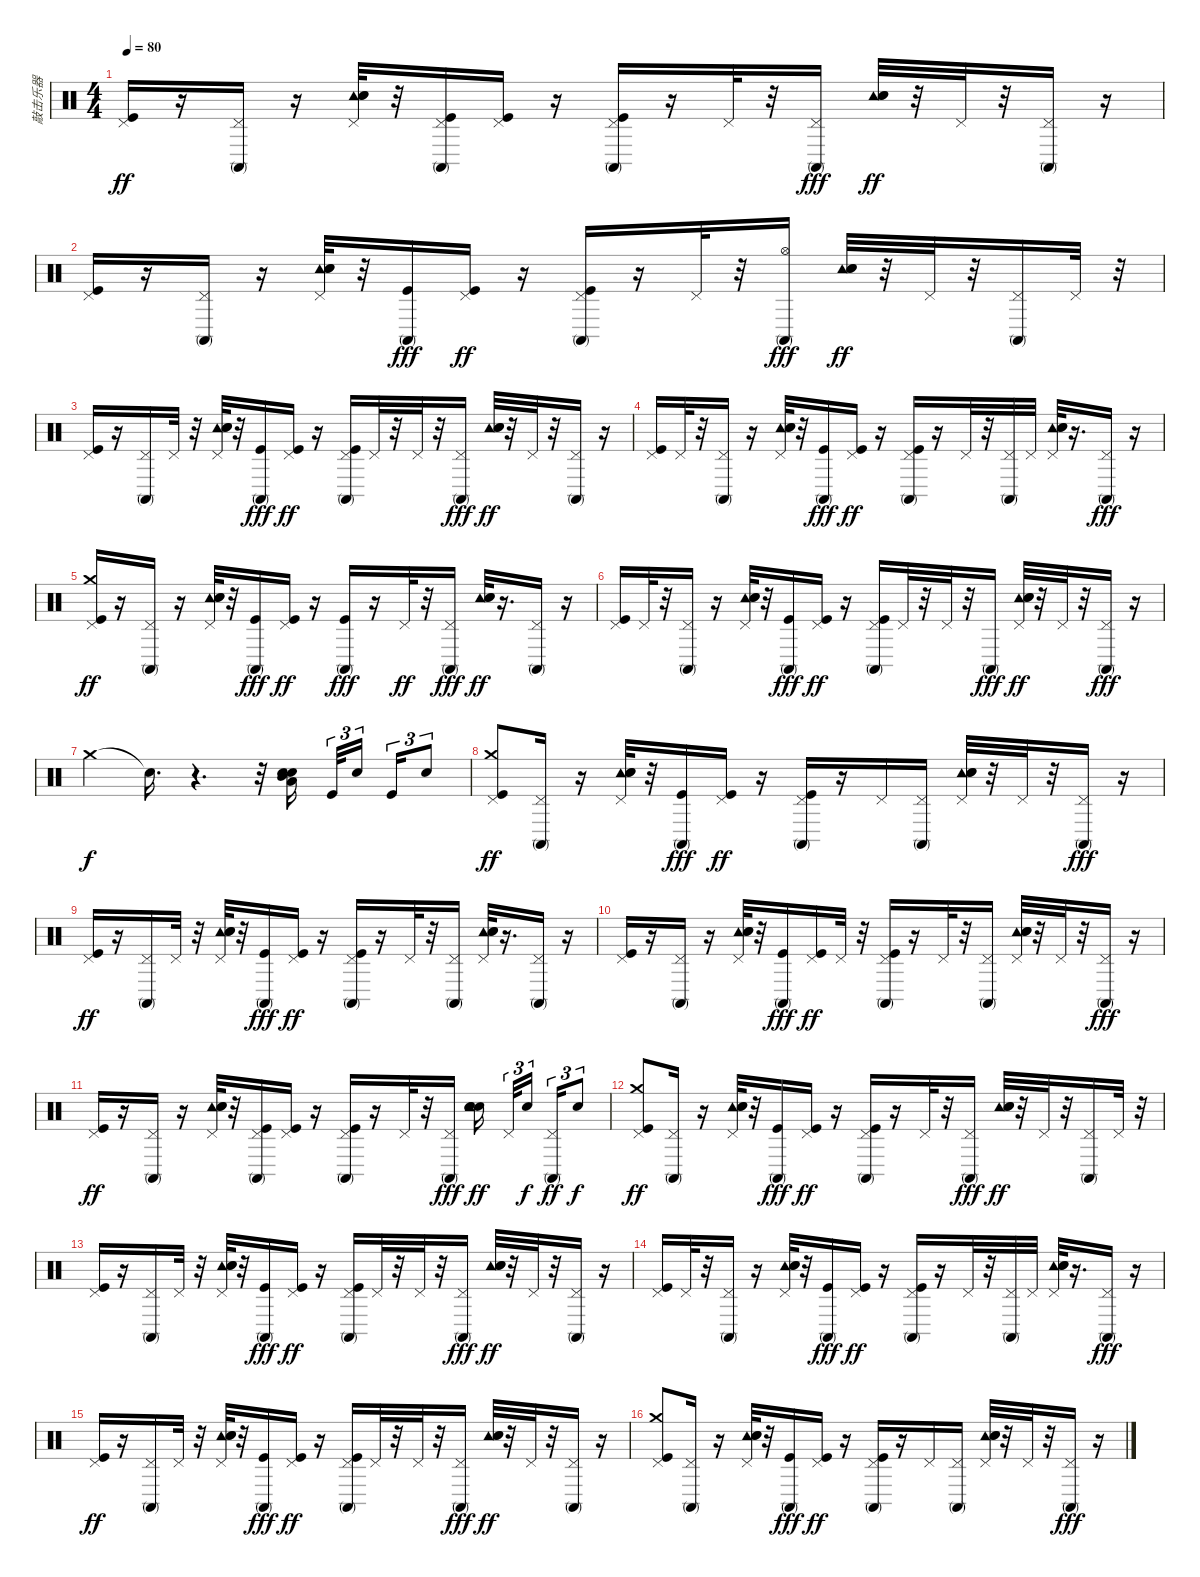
\track ("敲击乐器" "敲击乐器") {instrument percussion}
\staff {score}
\articulation defaults
\ts (4 4)
\tempo 80
\clef neutral
\ks c
("Kick (hit)" "Pedal Hi-Hat (hit)").16{dy ff} r.16 ("Conga high (mute)" "Pedal Hi-Hat (hit)").16 r.16 ("Pedal Hi-Hat (hit)" "Tambourine (hit)" "Hand Clap (hit)" "Electric Snare (hit)").32 r.32 ("Conga high (mute)" "Kick (hit)" "Pedal Hi-Hat (hit)").16 ("Kick (hit)" "Pedal Hi-Hat (hit)").16 r.16 ("Conga high (mute)" "Kick (hit)" "Pedal Hi-Hat (hit)").16 r.16 "Pedal Hi-Hat (hit)".32 r.32 ("Conga high (mute)" "Pedal Hi-Hat (hit)").16{dy fff} ("Tambourine (hit)" "Hand Clap (hit)" "Electric Snare (hit)").32{dy ff} r.32 "Pedal Hi-Hat (hit)".32 r.32 ("Conga high (mute)" "Pedal Hi-Hat (hit)").16 r.16 |
("Kick (hit)" "Pedal Hi-Hat (hit)").16 r.16 ("Conga high (mute)" "Pedal Hi-Hat (hit)").16 r.16 ("Pedal Hi-Hat (hit)" "Tambourine (hit)" "Hand Clap (hit)" "Electric Snare (hit)").32 r.32 ("Conga high (mute)" "Kick (hit)").16{dy fff} ("Kick (hit)" "Pedal Hi-Hat (hit)").16{dy ff} r.16 ("Conga high (mute)" "Kick (hit)" "Pedal Hi-Hat (hit)").16 r.16 "Pedal Hi-Hat (hit)".32 r.32 ("Conga high (mute)" "Hi-Hat (open)").16{dy fff} ("Tambourine (hit)" "Hand Clap (hit)" "Electric Snare (hit)").32{dy ff} r.32 "Pedal Hi-Hat (hit)".32 r.32 ("Conga high (mute)" "Pedal Hi-Hat (hit)").16 "Pedal Hi-Hat (hit)".32 r.32 |
("Kick (hit)" "Pedal Hi-Hat (hit)").16 r.16 ("Conga high (mute)" "Pedal Hi-Hat (hit)").16 "Pedal Hi-Hat (hit)".32 r.32 ("Pedal Hi-Hat (hit)" "Tambourine (hit)" "Hand Clap (hit)" "Electric Snare (hit)").32 r.32 ("Conga high (mute)" "Kick (hit)").16{dy fff} ("Kick (hit)" "Pedal Hi-Hat (hit)").16{dy ff} r.16 ("Conga high (mute)" "Kick (hit)" "Pedal Hi-Hat (hit)").16 "Pedal Hi-Hat (hit)".32 r.32 "Pedal Hi-Hat (hit)".32 r.32 ("Conga high (mute)" "Pedal Hi-Hat (hit)").16{dy fff} ("Tambourine (hit)" "Hand Clap (hit)" "Electric Snare (hit)").32{dy ff} r.32 "Pedal Hi-Hat (hit)".32 r.32 ("Conga high (mute)" "Pedal Hi-Hat (hit)").16 r.16 |
("Kick (hit)" "Pedal Hi-Hat (hit)").16 "Pedal Hi-Hat (hit)".32 r.32 ("Conga high (mute)" "Pedal Hi-Hat (hit)").16 r.16 ("Pedal Hi-Hat (hit)" "Tambourine (hit)" "Hand Clap (hit)" "Electric Snare (hit)").32 r.32 ("Conga high (mute)" "Kick (hit)").16{dy fff} ("Kick (hit)" "Pedal Hi-Hat (hit)").16{dy ff} r.16 ("Conga high (mute)" "Kick (hit)" "Pedal Hi-Hat (hit)").16 r.16 "Pedal Hi-Hat (hit)".32 r.32 ("Conga high (mute)" "Pedal Hi-Hat (hit)").32 "Pedal Hi-Hat (hit)".32 ("Pedal Hi-Hat (hit)" "Tambourine (hit)" "Hand Clap (hit)" "Electric Snare (hit)").32 r.16{d} ("Conga high (mute)" "Pedal Hi-Hat (hit)").16{dy fff} r.16 |
("Kick (hit)" "Crash medium (hit)" "Pedal Hi-Hat (hit)").16{dy ff} r.16 ("Conga high (mute)" "Pedal Hi-Hat (hit)").16 r.16 ("Pedal Hi-Hat (hit)" "Tambourine (hit)" "Hand Clap (hit)" "Electric Snare (hit)").32 r.32 ("Conga high (mute)" "Kick (hit)").16{dy fff} ("Kick (hit)" "Pedal Hi-Hat (hit)").16{dy ff} r.16 ("Conga high (mute)" "Kick (hit)").16{dy fff} r.16 "Pedal Hi-Hat (hit)".32{dy ff} r.32 ("Conga high (mute)" "Pedal Hi-Hat (hit)").16{dy fff} ("Tambourine (hit)" "Hand Clap (hit)" "Electric Snare (hit)").32{dy ff} r.16{d} ("Conga high (mute)" "Pedal Hi-Hat (hit)").16 r.16 |
("Kick (hit)" "Pedal Hi-Hat (hit)").16 "Pedal Hi-Hat (hit)".32 r.32 ("Conga high (mute)" "Pedal Hi-Hat (hit)").16 r.16 ("Pedal Hi-Hat (hit)" "Tambourine (hit)" "Hand Clap (hit)" "Electric Snare (hit)").32 r.32 ("Conga high (mute)" "Kick (hit)").16{dy fff} ("Kick (hit)" "Pedal Hi-Hat (hit)").16{dy ff} r.16 ("Conga high (mute)" "Kick (hit)" "Pedal Hi-Hat (hit)").16 "Pedal Hi-Hat (hit)".32 r.32 "Pedal Hi-Hat (hit)".32 r.32 "Conga high (mute)".16{dy fff} ("Pedal Hi-Hat (hit)" "Tambourine (hit)" "Hand Clap (hit)" "Electric Snare (hit)").32{dy ff} r.32 "Pedal Hi-Hat (hit)".32 r.32 ("Conga high (mute)" "Pedal Hi-Hat (hit)").16{dy fff} r.16 |
"Crash medium (hit)".4{dy f} "Snare (hit)"{t}.16{d} r.4{d} r.32 ("Electric Snare (hit)" "Mid Tom (hit)" "Low Tom (hit)" "Hand Clap (hit)").16{beam splitsecondary} "Kick (hit)".32{tu (3 2)} "Hand Clap (hit)".16{tu (3 2) beam splitsecondary} "Kick (hit)".16{tu (3 2)} "Hand Clap (hit)".8{tu (3 2)} |
("Kick (hit)" "Crash medium (hit)" "Pedal Hi-Hat (hit)").8{dy ff} ("Conga high (mute)" "Pedal Hi-Hat (hit)").16 r.16 ("Pedal Hi-Hat (hit)" "Tambourine (hit)" "Hand Clap (hit)" "Electric Snare (hit)").32 r.32 ("Conga high (mute)" "Kick (hit)").16{dy fff} ("Kick (hit)" "Pedal Hi-Hat (hit)").16{dy ff} r.16 ("Conga high (mute)" "Kick (hit)" "Pedal Hi-Hat (hit)").16 r.16 "Pedal Hi-Hat (hit)".16 ("Conga high (mute)" "Pedal Hi-Hat (hit)").16 ("Pedal Hi-Hat (hit)" "Tambourine (hit)" "Hand Clap (hit)" "Electric Snare (hit)").32 r.32 "Pedal Hi-Hat (hit)".32 r.32 ("Conga high (mute)" "Pedal Hi-Hat (hit)").16{dy fff} r.16 |
("Kick (hit)" "Pedal Hi-Hat (hit)").16{dy ff} r.16 ("Conga high (mute)" "Pedal Hi-Hat (hit)").16 "Pedal Hi-Hat (hit)".32 r.32 ("Pedal Hi-Hat (hit)" "Tambourine (hit)" "Hand Clap (hit)" "Electric Snare (hit)").32 r.32 ("Conga high (mute)" "Kick (hit)").16{dy fff} ("Kick (hit)" "Pedal Hi-Hat (hit)").16{dy ff} r.16 ("Conga high (mute)" "Kick (hit)" "Pedal Hi-Hat (hit)").16 r.16 "Pedal Hi-Hat (hit)".32 r.32 ("Conga high (mute)" "Pedal Hi-Hat (hit)").16 ("Pedal Hi-Hat (hit)" "Tambourine (hit)" "Hand Clap (hit)" "Electric Snare (hit)").32 r.16{d} ("Conga high (mute)" "Pedal Hi-Hat (hit)").16 r.16 |
("Kick (hit)" "Pedal Hi-Hat (hit)").16 r.16 ("Conga high (mute)" "Pedal Hi-Hat (hit)").16 r.16 ("Pedal Hi-Hat (hit)" "Tambourine (hit)" "Hand Clap (hit)" "Electric Snare (hit)").32 r.32 ("Conga high (mute)" "Kick (hit)").16{dy fff} ("Kick (hit)" "Pedal Hi-Hat (hit)").16{dy ff} "Pedal Hi-Hat (hit)".32 r.32 ("Conga high (mute)" "Kick (hit)" "Pedal Hi-Hat (hit)").16 r.16 "Pedal Hi-Hat (hit)".32 r.32 ("Conga high (mute)" "Pedal Hi-Hat (hit)").16 ("Pedal Hi-Hat (hit)" "Tambourine (hit)" "Hand Clap (hit)" "Electric Snare (hit)").32 r.32 "Pedal Hi-Hat (hit)".32 r.32 ("Conga high (mute)" "Pedal Hi-Hat (hit)").16{dy fff} r.16 |
("Kick (hit)" "Pedal Hi-Hat (hit)").16{dy ff} r.16 ("Conga high (mute)" "Pedal Hi-Hat (hit)").16 r.16 ("Pedal Hi-Hat (hit)" "Tambourine (hit)" "Hand Clap (hit)" "Electric Snare (hit)").32 r.32 ("Conga high (mute)" "Kick (hit)" "Pedal Hi-Hat (hit)").16 ("Kick (hit)" "Pedal Hi-Hat (hit)").16 r.16 ("Conga high (mute)" "Kick (hit)" "Pedal Hi-Hat (hit)").16 r.16 "Pedal Hi-Hat (hit)".32 r.32 ("Conga high (mute)" "Pedal Hi-Hat (hit)").16{dy fff} ("Hand Clap (hit)" "Tambourine (hit)" "Hand Clap (hit)" "Electric Snare (hit)").16{dy ff beam splitsecondary} "Pedal Hi-Hat (hit)".32{tu (3 2)} "Hand Clap (hit)".16{tu (3 2) dy f beam splitsecondary} ("Conga high (mute)" "Pedal Hi-Hat (hit)").16{tu (3 2) dy ff} "Hand Clap (hit)".8{tu (3 2) dy f} |
("Kick (hit)" "Crash medium (hit)" "Pedal Hi-Hat (hit)").8{dy ff} ("Conga high (mute)" "Pedal Hi-Hat (hit)").16 r.16 ("Pedal Hi-Hat (hit)" "Tambourine (hit)" "Hand Clap (hit)" "Electric Snare (hit)").32 r.32 ("Conga high (mute)" "Kick (hit)").16{dy fff} ("Kick (hit)" "Pedal Hi-Hat (hit)").16{dy ff} r.16 ("Conga high (mute)" "Kick (hit)" "Pedal Hi-Hat (hit)").16 r.16 "Pedal Hi-Hat (hit)".32 r.32 ("Conga high (mute)" "Pedal Hi-Hat (hit)").16{dy fff} ("Tambourine (hit)" "Hand Clap (hit)" "Electric Snare (hit)").32{dy ff} r.32 "Pedal Hi-Hat (hit)".32 r.32 ("Conga high (mute)" "Pedal Hi-Hat (hit)").16 "Pedal Hi-Hat (hit)".32 r.32 |
("Kick (hit)" "Pedal Hi-Hat (hit)").16 r.16 ("Conga high (mute)" "Pedal Hi-Hat (hit)").16 "Pedal Hi-Hat (hit)".32 r.32 ("Pedal Hi-Hat (hit)" "Tambourine (hit)" "Hand Clap (hit)" "Electric Snare (hit)").32 r.32 ("Conga high (mute)" "Kick (hit)").16{dy fff} ("Kick (hit)" "Pedal Hi-Hat (hit)").16{dy ff} r.16 ("Conga high (mute)" "Kick (hit)" "Pedal Hi-Hat (hit)").16 "Pedal Hi-Hat (hit)".32 r.32 "Pedal Hi-Hat (hit)".32 r.32 ("Conga high (mute)" "Pedal Hi-Hat (hit)").16{dy fff} ("Tambourine (hit)" "Hand Clap (hit)" "Electric Snare (hit)").32{dy ff} r.32 "Pedal Hi-Hat (hit)".32 r.32 ("Conga high (mute)" "Pedal Hi-Hat (hit)").16 r.16 |
("Kick (hit)" "Pedal Hi-Hat (hit)").16 "Pedal Hi-Hat (hit)".32 r.32 ("Conga high (mute)" "Pedal Hi-Hat (hit)").16 r.16 ("Pedal Hi-Hat (hit)" "Tambourine (hit)" "Hand Clap (hit)" "Electric Snare (hit)").32 r.32 ("Conga high (mute)" "Kick (hit)").16{dy fff} ("Kick (hit)" "Pedal Hi-Hat (hit)").16{dy ff} r.16 ("Conga high (mute)" "Kick (hit)" "Pedal Hi-Hat (hit)").16 r.16 "Pedal Hi-Hat (hit)".32 r.32 ("Conga high (mute)" "Pedal Hi-Hat (hit)").32 "Pedal Hi-Hat (hit)".32 ("Pedal Hi-Hat (hit)" "Tambourine (hit)" "Hand Clap (hit)" "Electric Snare (hit)").32 r.16{d} ("Conga high (mute)" "Pedal Hi-Hat (hit)").16{dy fff} r.16 |
("Kick (hit)" "Pedal Hi-Hat (hit)").16{dy ff} r.16 ("Conga high (mute)" "Pedal Hi-Hat (hit)").16 "Pedal Hi-Hat (hit)".32 r.32 ("Pedal Hi-Hat (hit)" "Tambourine (hit)" "Hand Clap (hit)" "Electric Snare (hit)").32 r.32 ("Conga high (mute)" "Kick (hit)").16{dy fff} ("Kick (hit)" "Pedal Hi-Hat (hit)").16{dy ff} r.16 ("Conga high (mute)" "Kick (hit)" "Pedal Hi-Hat (hit)").16 "Pedal Hi-Hat (hit)".32 r.32 "Pedal Hi-Hat (hit)".32 r.32 ("Conga high (mute)" "Pedal Hi-Hat (hit)").16{dy fff} ("Tambourine (hit)" "Hand Clap (hit)" "Electric Snare (hit)").32{dy ff} r.32 "Pedal Hi-Hat (hit)".32 r.32 ("Conga high (mute)" "Pedal Hi-Hat (hit)").16 r.16 |
("Kick (hit)" "Crash medium (hit)" "Pedal Hi-Hat (hit)").8 ("Conga high (mute)" "Pedal Hi-Hat (hit)").16 r.16 ("Pedal Hi-Hat (hit)" "Tambourine (hit)" "Hand Clap (hit)" "Electric Snare (hit)").32 r.32 ("Conga high (mute)" "Kick (hit)").16{dy fff} ("Kick (hit)" "Pedal Hi-Hat (hit)").16{dy ff} r.16 ("Conga high (mute)" "Kick (hit)" "Pedal Hi-Hat (hit)").16 r.16 "Pedal Hi-Hat (hit)".16 ("Conga high (mute)" "Pedal Hi-Hat (hit)").16 ("Pedal Hi-Hat (hit)" "Tambourine (hit)" "Hand Clap (hit)" "Electric Snare (hit)").32 r.32 "Pedal Hi-Hat (hit)".32 r.32 ("Conga high (mute)" "Pedal Hi-Hat (hit)").16{dy fff} r.16
